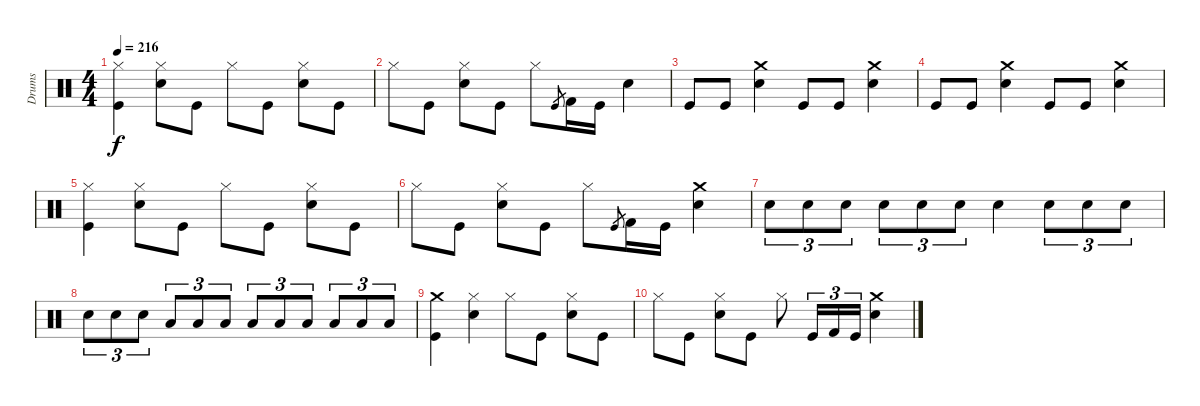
\track ("Drums" "Drums") {instrument percussion}
\staff {score}
\articulation defaults
\ts (4 4)
\tempo 216
\clef neutral
\ks c
("Hi-Hat (closed)" "Kick (hit)").4{dy f} ("Snare (hit) 2" "Hi-Hat (closed)").8 "Kick (hit)".8 "Hi-Hat (closed)".8 "Kick (hit)".8 ("Snare (hit) 2" "Hi-Hat (closed)").8 "Kick (hit)".8 |
"Hi-Hat (closed)".8 "Kick (hit)".8 ("Snare (hit) 2" "Hi-Hat (closed)").8 "Kick (hit)".8 "Hi-Hat (closed)".8 "Kick (hit)".8{gr} "Kick (hit) 2".16 "Kick (hit)".16 "Snare (hit) 2".4 |
"Kick (hit)".8 "Kick (hit)".8 ("Crash medium (hit)" "Snare (hit) 2").4 "Kick (hit)".8 "Kick (hit)".8 ("Snare (hit) 2" "Crash medium (hit)").4 |
"Kick (hit)".8 "Kick (hit)".8 ("Snare (hit) 2" "Crash medium (hit)").4 "Kick (hit)".8 "Kick (hit)".8 ("Snare (hit) 2" "Crash medium (hit)").4 |
("Hi-Hat (closed)" "Kick (hit)").4 ("Snare (hit) 2" "Hi-Hat (closed)").8 "Kick (hit)".8 "Hi-Hat (closed)".8 "Kick (hit)".8 ("Snare (hit) 2" "Hi-Hat (closed)").8 "Kick (hit)".8 |
"Hi-Hat (closed)".8 "Kick (hit)".8 ("Snare (hit) 2" "Hi-Hat (closed)").8 "Kick (hit)".8 "Hi-Hat (closed)".8 "Kick (hit)".8{gr} "Kick (hit) 2".16 "Kick (hit)".16 ("Snare (hit) 2" "Crash medium (hit)").4 |
"Snare (hit) 2".8{tu (3 2)} "Snare (hit) 2".8{tu (3 2)} "Snare (hit) 2".8{tu (3 2)} "Snare (hit) 2".8{tu (3 2)} "Snare (hit) 2".8{tu (3 2)} "Snare (hit) 2".8{tu (3 2)} "Snare (hit) 2".4 "Snare (hit) 2".8{tu (3 2)} "Snare (hit) 2".8{tu (3 2)} "Snare (hit) 2".8{tu (3 2)} |
"Snare (hit) 2".8{tu (3 2)} "Snare (hit) 2".8{tu (3 2)} "Snare (hit) 2".8{tu (3 2)} "Low Tom (hit)".8{tu (3 2)} "Low Tom (hit)".8{tu (3 2)} "Low Tom (hit)".8{tu (3 2)} "Low Tom (hit)".8{tu (3 2)} "Low Tom (hit)".8{tu (3 2)} "Low Tom (hit)".8{tu (3 2)} "Low Tom (hit)".8{tu (3 2)} "Low Tom (hit)".8{tu (3 2)} "Low Tom (hit)".8{tu (3 2)} |
("Crash medium (hit)" "Kick (hit)").4 ("Hi-Hat (closed)" "Snare (hit) 2").4 "Hi-Hat (closed)".8 "Kick (hit)".8 ("Snare (hit) 2" "Hi-Hat (closed)").8 "Kick (hit)".8 |
"Hi-Hat (closed)".8 "Kick (hit)".8 ("Snare (hit) 2" "Hi-Hat (closed)").8 "Kick (hit)".8 "Hi-Hat (closed)".8 "Kick (hit)".16{tu (3 2)} "Kick (hit) 2".16{tu (3 2)} "Kick (hit)".16{tu (3 2)} ("Crash medium (hit)" "Snare (hit) 2").4
